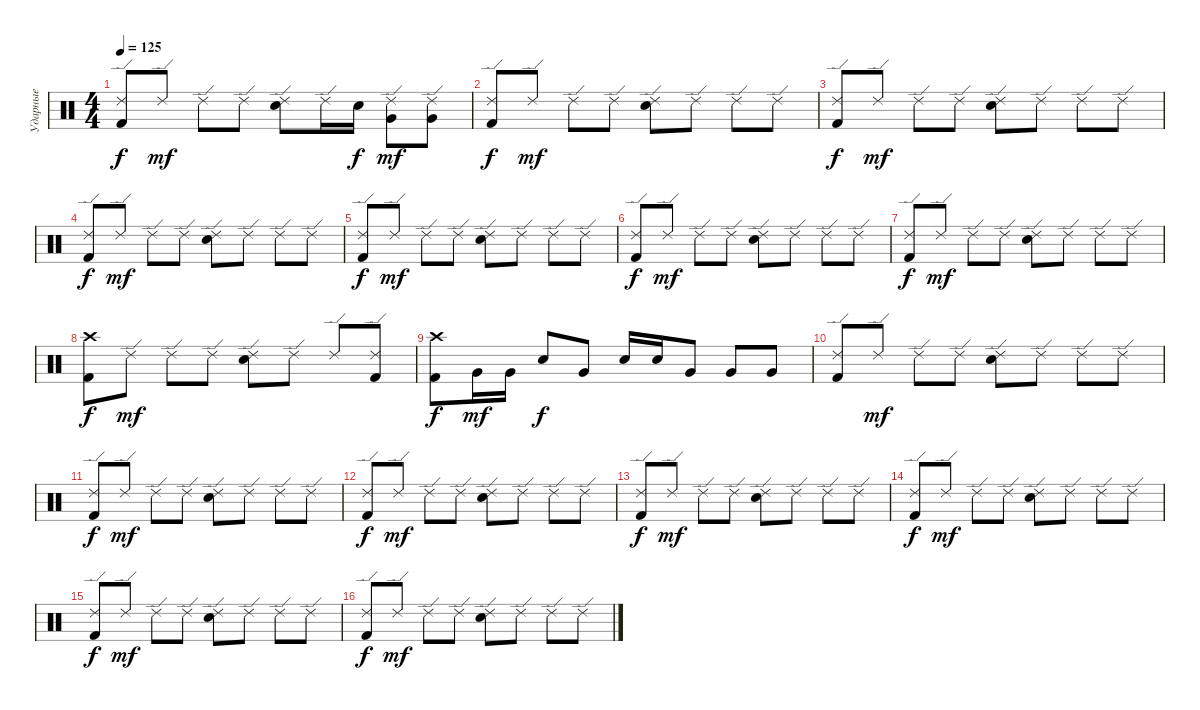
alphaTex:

\track ("Ударные" "Ударные") {instrument percussion}
\staff {score}
\articulation defaults
\ts (4 4)
\tempo 125
\clef neutral
\ks c
("Ride (edge) 2" "Kick (hit) 2").8{dy f} "Ride (edge) 2".8{dy mf} "Ride (edge) 2".8 "Ride (edge) 2".8 ("Ride (edge) 2" "Electric Snare (hit)").8 "Ride (edge) 2".16 "Electric Snare (hit)".16{dy f} ("Ride (edge) 2" "Very Low Tom (hit)").8{dy mf} ("Ride (edge) 2" "Very Low Tom (hit)").8 |
("Ride (edge) 2" "Kick (hit) 2").8{dy f volume 10} "Ride (edge) 2".8{dy mf} "Ride (edge) 2".8 "Ride (edge) 2".8 ("Ride (edge) 2" "Electric Snare (hit)").8 "Ride (edge) 2".8 "Ride (edge) 2".8 "Ride (edge) 2".8 |
("Ride (edge) 2" "Kick (hit) 2").8{dy f} "Ride (edge) 2".8{dy mf} "Ride (edge) 2".8 "Ride (edge) 2".8 ("Ride (edge) 2" "Electric Snare (hit)").8 "Ride (edge) 2".8 "Ride (edge) 2".8 "Ride (edge) 2".8 |
("Ride (edge) 2" "Kick (hit) 2").8{dy f} "Ride (edge) 2".8{dy mf} "Ride (edge) 2".8 "Ride (edge) 2".8 ("Ride (edge) 2" "Electric Snare (hit)").8 "Ride (edge) 2".8 "Ride (edge) 2".8 "Ride (edge) 2".8 |
("Ride (edge) 2" "Kick (hit) 2").8{dy f} "Ride (edge) 2".8{dy mf} "Ride (edge) 2".8 "Ride (edge) 2".8 ("Ride (edge) 2" "Electric Snare (hit)").8 "Ride (edge) 2".8 "Ride (edge) 2".8 "Ride (edge) 2".8 |
("Ride (edge) 2" "Kick (hit) 2").8{dy f} "Ride (edge) 2".8{dy mf} "Ride (edge) 2".8 "Ride (edge) 2".8 ("Ride (edge) 2" "Electric Snare (hit)").8 "Ride (edge) 2".8 "Ride (edge) 2".8 "Ride (edge) 2".8 |
("Ride (edge) 2" "Kick (hit) 2").8{dy f} "Ride (edge) 2".8{dy mf} "Ride (edge) 2".8 "Ride (edge) 2".8 ("Ride (edge) 2" "Electric Snare (hit)").8 "Ride (edge) 2".8 "Ride (edge) 2".8 "Ride (edge) 2".8 |
("Crash high (hit)" "Kick (hit) 2").8{dy f} "Ride (edge) 2".8{dy mf} "Ride (edge) 2".8 "Ride (edge) 2".8 ("Ride (edge) 2" "Electric Snare (hit)").8 "Ride (edge) 2".8 "Ride (edge) 2".8 ("Ride (edge) 2" "Kick (hit) 2").8 |
("Crash high (hit)" "Kick (hit) 2").8{dy f} "Very Low Tom (hit)".16{dy mf} "Very Low Tom (hit)".16 "Electric Snare (hit)".8{dy f} "Very Low Tom (hit)".8 "Electric Snare (hit)".16 "Electric Snare (hit)".16 "Very Low Tom (hit)".8 "Very Low Tom (hit)".8 "Very Low Tom (hit)".8 |
("Ride (edge) 2" "Kick (hit) 2").8{volume 8} "Ride (edge) 2".8{dy mf} "Ride (edge) 2".8 "Ride (edge) 2".8 ("Ride (edge) 2" "Electric Snare (hit)").8 "Ride (edge) 2".8 "Ride (edge) 2".8 "Ride (edge) 2".8 |
("Ride (edge) 2" "Kick (hit) 2").8{dy f} "Ride (edge) 2".8{dy mf} "Ride (edge) 2".8 "Ride (edge) 2".8 ("Ride (edge) 2" "Electric Snare (hit)").8 "Ride (edge) 2".8 "Ride (edge) 2".8 "Ride (edge) 2".8 |
("Ride (edge) 2" "Kick (hit) 2").8{dy f} "Ride (edge) 2".8{dy mf} "Ride (edge) 2".8 "Ride (edge) 2".8 ("Ride (edge) 2" "Electric Snare (hit)").8 "Ride (edge) 2".8 "Ride (edge) 2".8 "Ride (edge) 2".8 |
("Ride (edge) 2" "Kick (hit) 2").8{dy f} "Ride (edge) 2".8{dy mf} "Ride (edge) 2".8 "Ride (edge) 2".8 ("Ride (edge) 2" "Electric Snare (hit)").8 "Ride (edge) 2".8 "Ride (edge) 2".8 "Ride (edge) 2".8 |
("Ride (edge) 2" "Kick (hit) 2").8{dy f} "Ride (edge) 2".8{dy mf} "Ride (edge) 2".8 "Ride (edge) 2".8 ("Ride (edge) 2" "Electric Snare (hit)").8 "Ride (edge) 2".8 "Ride (edge) 2".8 "Ride (edge) 2".8 |
("Ride (edge) 2" "Kick (hit) 2").8{dy f} "Ride (edge) 2".8{dy mf} "Ride (edge) 2".8 "Ride (edge) 2".8 ("Ride (edge) 2" "Electric Snare (hit)").8 "Ride (edge) 2".8 "Ride (edge) 2".8 "Ride (edge) 2".8 |
("Ride (edge) 2" "Kick (hit) 2").8{dy f} "Ride (edge) 2".8{dy mf} "Ride (edge) 2".8 "Ride (edge) 2".8 ("Ride (edge) 2" "Electric Snare (hit)").8 "Ride (edge) 2".8 "Ride (edge) 2".8 "Ride (edge) 2".8
